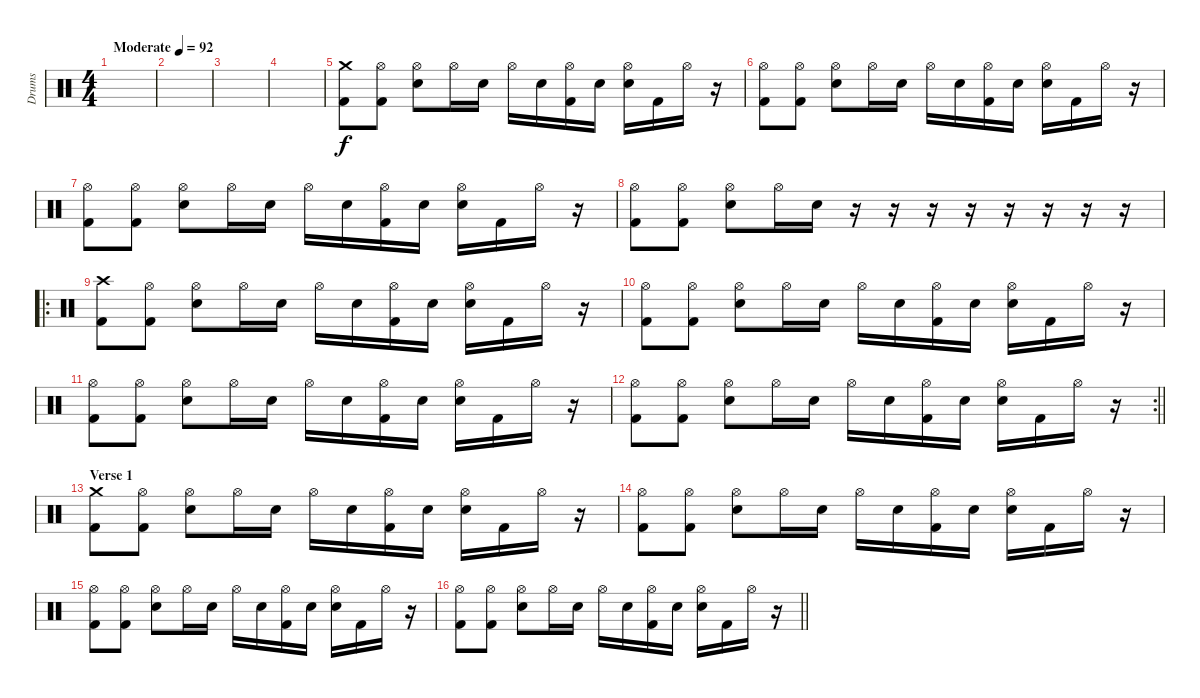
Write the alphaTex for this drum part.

\track ("Drums" "Drums") {instrument percussion}
\staff {score}
\articulation defaults
\ts (4 4)
\tempo (92 "Moderate")
\clef neutral
\ks c
|
|
|
|
("Crash medium (hit)" "Kick (hit) 2").8 ("Hi-Hat (open)" "Kick (hit) 2").8 ("Hi-Hat (open)" "Snare (hit) 2").8 "Hi-Hat (open)".16 "Snare (hit) 2".16 "Hi-Hat (open)".16 "Snare (hit) 2".16 ("Hi-Hat (open)" "Kick (hit) 2").16 "Snare (hit) 2".16 ("Hi-Hat (open)" "Snare (hit) 2").16 "Kick (hit) 2".16 "Hi-Hat (open)".16 r.16 |
("Hi-Hat (open)" "Kick (hit) 2").8 ("Hi-Hat (open)" "Kick (hit) 2").8 ("Hi-Hat (open)" "Snare (hit) 2").8 "Hi-Hat (open)".16 "Snare (hit) 2".16 "Hi-Hat (open)".16 "Snare (hit) 2".16 ("Hi-Hat (open)" "Kick (hit) 2").16 "Snare (hit) 2".16 ("Hi-Hat (open)" "Snare (hit) 2").16 "Kick (hit) 2".16 "Hi-Hat (open)".16 r.16 |
("Hi-Hat (open)" "Kick (hit) 2").8 ("Hi-Hat (open)" "Kick (hit) 2").8 ("Hi-Hat (open)" "Snare (hit) 2").8 "Hi-Hat (open)".16 "Snare (hit) 2".16 "Hi-Hat (open)".16 "Snare (hit) 2".16 ("Hi-Hat (open)" "Kick (hit) 2").16 "Snare (hit) 2".16 ("Hi-Hat (open)" "Snare (hit) 2").16 "Kick (hit) 2".16 "Hi-Hat (open)".16 r.16 |
("Hi-Hat (open)" "Kick (hit) 2").8 ("Hi-Hat (open)" "Kick (hit) 2").8 ("Hi-Hat (open)" "Snare (hit) 2").8 "Hi-Hat (open)".16 "Snare (hit) 2".16 r.16 r.16 r.16 r.16 r.16 r.16 r.16 r.16 |
\ro
("Crash high (hit)" "Kick (hit) 2").8 ("Hi-Hat (open)" "Kick (hit) 2").8 ("Hi-Hat (open)" "Snare (hit) 2").8 "Hi-Hat (open)".16 "Snare (hit) 2".16 "Hi-Hat (open)".16 "Snare (hit) 2".16 ("Hi-Hat (open)" "Kick (hit) 2").16 "Snare (hit) 2".16 ("Hi-Hat (open)" "Snare (hit) 2").16 "Kick (hit) 2".16 "Hi-Hat (open)".16 r.16 |
("Hi-Hat (open)" "Kick (hit) 2").8 ("Hi-Hat (open)" "Kick (hit) 2").8 ("Hi-Hat (open)" "Snare (hit) 2").8 "Hi-Hat (open)".16 "Snare (hit) 2".16 "Hi-Hat (open)".16 "Snare (hit) 2".16 ("Hi-Hat (open)" "Kick (hit) 2").16 "Snare (hit) 2".16 ("Hi-Hat (open)" "Snare (hit) 2").16 "Kick (hit) 2".16 "Hi-Hat (open)".16 r.16 |
("Hi-Hat (open)" "Kick (hit) 2").8 ("Hi-Hat (open)" "Kick (hit) 2").8 ("Hi-Hat (open)" "Snare (hit) 2").8 "Hi-Hat (open)".16 "Snare (hit) 2".16 "Hi-Hat (open)".16 "Snare (hit) 2".16 ("Hi-Hat (open)" "Kick (hit) 2").16 "Snare (hit) 2".16 ("Hi-Hat (open)" "Snare (hit) 2").16 "Kick (hit) 2".16 "Hi-Hat (open)".16 r.16 |
\rc 2
\barLineRight lightlight
("Hi-Hat (open)" "Kick (hit) 2").8 ("Hi-Hat (open)" "Kick (hit) 2").8 ("Hi-Hat (open)" "Snare (hit) 2").8 "Hi-Hat (open)".16 "Snare (hit) 2".16 "Hi-Hat (open)".16 "Snare (hit) 2".16 ("Hi-Hat (open)" "Kick (hit) 2").16 "Snare (hit) 2".16 ("Hi-Hat (open)" "Snare (hit) 2").16 "Kick (hit) 2".16 "Hi-Hat (open)".16 r.16 |
\section ("" "Verse 1")
("Crash medium (hit)" "Kick (hit) 2").8 ("Hi-Hat (open)" "Kick (hit) 2").8 ("Hi-Hat (open)" "Snare (hit) 2").8 "Hi-Hat (open)".16 "Snare (hit) 2".16 "Hi-Hat (open)".16 "Snare (hit) 2".16 ("Hi-Hat (open)" "Kick (hit) 2").16 "Snare (hit) 2".16 ("Hi-Hat (open)" "Snare (hit) 2").16 "Kick (hit) 2".16 "Hi-Hat (open)".16 r.16 |
("Hi-Hat (open)" "Kick (hit) 2").8 ("Hi-Hat (open)" "Kick (hit) 2").8 ("Hi-Hat (open)" "Snare (hit) 2").8 "Hi-Hat (open)".16 "Snare (hit) 2".16 "Hi-Hat (open)".16 "Snare (hit) 2".16 ("Hi-Hat (open)" "Kick (hit) 2").16 "Snare (hit) 2".16 ("Hi-Hat (open)" "Snare (hit) 2").16 "Kick (hit) 2".16 "Hi-Hat (open)".16 r.16 |
("Hi-Hat (open)" "Kick (hit) 2").8 ("Hi-Hat (open)" "Kick (hit) 2").8 ("Hi-Hat (open)" "Snare (hit) 2").8 "Hi-Hat (open)".16 "Snare (hit) 2".16 "Hi-Hat (open)".16 "Snare (hit) 2".16 ("Hi-Hat (open)" "Kick (hit) 2").16 "Snare (hit) 2".16 ("Hi-Hat (open)" "Snare (hit) 2").16 "Kick (hit) 2".16 "Hi-Hat (open)".16 r.16 |
\barLineRight lightlight
("Hi-Hat (open)" "Kick (hit) 2").8 ("Hi-Hat (open)" "Kick (hit) 2").8 ("Hi-Hat (open)" "Snare (hit) 2").8 "Hi-Hat (open)".16 "Snare (hit) 2".16 "Hi-Hat (open)".16 "Snare (hit) 2".16 ("Hi-Hat (open)" "Kick (hit) 2").16 "Snare (hit) 2".16 ("Hi-Hat (open)" "Snare (hit) 2").16 "Kick (hit) 2".16 "Hi-Hat (open)".16 r.16
